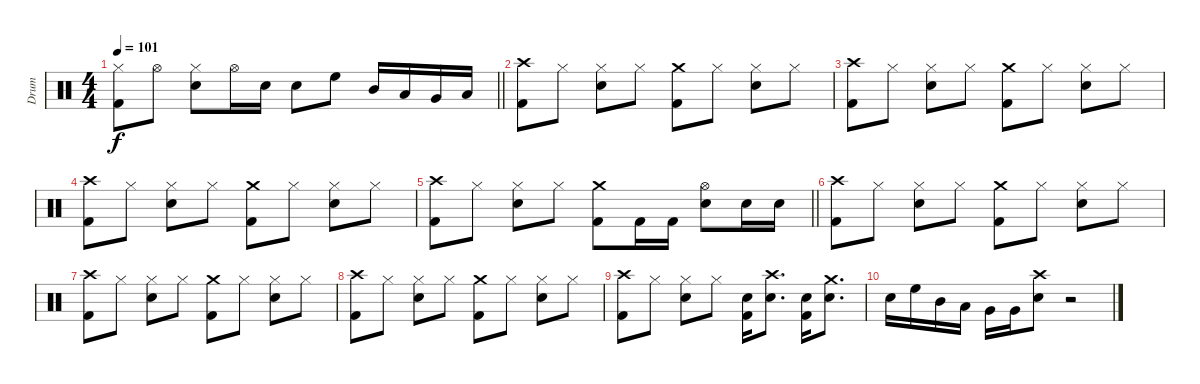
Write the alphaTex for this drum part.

\track ("Drum" "Drum") {instrument percussion}
\staff {score}
\articulation defaults
\ts (4 4)
\tempo 101
\clef neutral
\barLineRight lightlight
\ks c
("Hi-Hat (closed)" "Kick (hit) 2").8{dy f} "Hi-Hat (open)".8 ("Hi-Hat (closed)" "Snare (hit) 2").8 "Hi-Hat (open)".16 "Snare (hit) 2".16 "Snare (hit) 2".8 "High Floor Tom (hit)".8 "Mid Tom (hit)".16 "Low Tom (hit)".16 "Very Low Tom (hit)".16 "Low Floor Tom (hit)".16 |
("Crash high (hit)" "Kick (hit) 2").8 "Hi-Hat (closed)".8 ("Hi-Hat (closed)" "Snare (hit) 2").8 "Hi-Hat (closed)".8 ("Crash medium (hit)" "Kick (hit) 2").8 "Hi-Hat (closed)".8 ("Hi-Hat (closed)" "Snare (hit) 2").8 "Hi-Hat (closed)".8 |
("Crash high (hit)" "Kick (hit) 2").8 "Hi-Hat (closed)".8 ("Hi-Hat (closed)" "Snare (hit) 2").8 "Hi-Hat (closed)".8 ("Crash medium (hit)" "Kick (hit) 2").8 "Hi-Hat (closed)".8 ("Hi-Hat (closed)" "Snare (hit) 2").8 "Hi-Hat (closed)".8 |
("Crash high (hit)" "Kick (hit) 2").8 "Hi-Hat (closed)".8 ("Hi-Hat (closed)" "Snare (hit) 2").8 "Hi-Hat (closed)".8 ("Crash medium (hit)" "Kick (hit) 2").8 "Hi-Hat (closed)".8 ("Hi-Hat (closed)" "Snare (hit) 2").8 "Hi-Hat (closed)".8 |
\barLineRight lightlight
("Crash high (hit)" "Kick (hit) 2").8 "Hi-Hat (closed)".8 ("Hi-Hat (closed)" "Snare (hit) 2").8 "Hi-Hat (closed)".8 ("Crash medium (hit)" "Kick (hit) 2").8 "Kick (hit) 2".16 "Kick (hit) 2".16 ("Hi-Hat (open)" "Snare (hit) 2").8 "Snare (hit) 2".16 "Snare (hit) 2".16 |
("Crash high (hit)" "Kick (hit) 2").8 "Hi-Hat (closed)".8 ("Hi-Hat (closed)" "Snare (hit) 2").8 "Hi-Hat (closed)".8 ("Crash medium (hit)" "Kick (hit) 2").8 "Hi-Hat (closed)".8 ("Hi-Hat (closed)" "Snare (hit) 2").8 "Hi-Hat (closed)".8 |
("Crash high (hit)" "Kick (hit) 2").8 "Hi-Hat (closed)".8 ("Hi-Hat (closed)" "Snare (hit) 2").8 "Hi-Hat (closed)".8 ("Crash medium (hit)" "Kick (hit) 2").8 "Hi-Hat (closed)".8 ("Hi-Hat (closed)" "Snare (hit) 2").8 "Hi-Hat (closed)".8 |
("Crash high (hit)" "Kick (hit) 2").8 "Hi-Hat (closed)".8 ("Hi-Hat (closed)" "Snare (hit) 2").8 "Hi-Hat (closed)".8 ("Crash medium (hit)" "Kick (hit) 2").8 "Hi-Hat (closed)".8 ("Hi-Hat (closed)" "Snare (hit) 2").8 "Hi-Hat (closed)".8 |
("Crash high (hit)" "Kick (hit) 2").8 "Hi-Hat (closed)".8 ("Hi-Hat (closed)" "Snare (hit) 2").8 "Hi-Hat (closed)".8 ("Snare (hit) 2" "Kick (hit) 2").16{volume 13} ("Crash high (hit)" "Snare (hit) 2").8{d} ("Snare (hit) 2" "Kick (hit) 2").16 ("Crash medium (hit)" "Snare (hit) 2").8{d} |
"Snare (hit) 2".16 "High Floor Tom (hit)".16 "Mid Tom (hit)".16 "Low Tom (hit)".16 "Very Low Tom (hit)".16 "Very Low Tom (hit)".16 ("Crash high (hit)" "Snare (hit) 2").8 r.2
